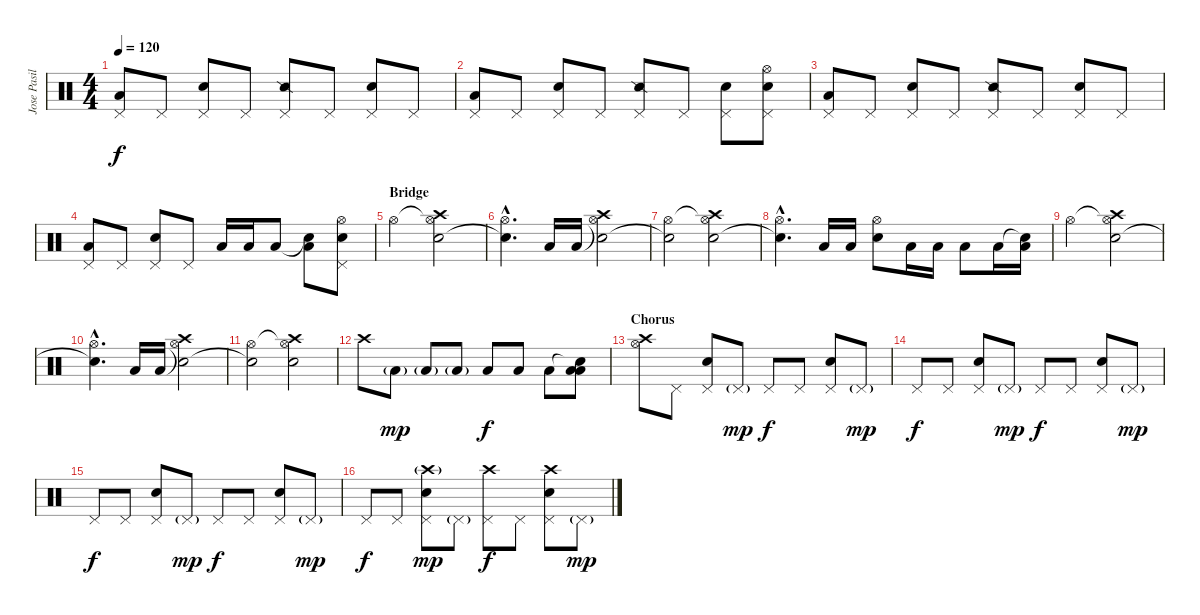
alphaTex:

\track ("Jose Pasillas II" "Jose Pasil") {instrument percussion}
\staff {score}
\articulation defaults
\ts (4 4)
\tempo 120
\clef neutral
\ks c
("Pedal Hi-Hat (hit)" "Low Floor Tom (hit)").8{dy f} "Pedal Hi-Hat (hit)".8 ("Pedal Hi-Hat (hit)" "Electric Snare (hit)").8 "Pedal Hi-Hat (hit)".8 ("Pedal Hi-Hat (hit)" "Snare (side stick) 2").8 "Pedal Hi-Hat (hit)".8 ("Pedal Hi-Hat (hit)" "Electric Snare (hit)").8 "Pedal Hi-Hat (hit)".8 |
("Pedal Hi-Hat (hit)" "Low Floor Tom (hit)").8 "Pedal Hi-Hat (hit)".8 ("Pedal Hi-Hat (hit)" "Electric Snare (hit)").8 "Pedal Hi-Hat (hit)".8 ("Pedal Hi-Hat (hit)" "Snare (side stick) 2").8 "Pedal Hi-Hat (hit)".8 ("Pedal Hi-Hat (hit)" "Electric Snare (hit)").8 ("Pedal Hi-Hat (hit)" "Hi-Hat (open)" "Electric Snare (hit)").8 |
("Pedal Hi-Hat (hit)" "Low Floor Tom (hit)").8 "Pedal Hi-Hat (hit)".8 ("Pedal Hi-Hat (hit)" "Electric Snare (hit)").8 "Pedal Hi-Hat (hit)".8 ("Pedal Hi-Hat (hit)" "Snare (side stick) 2").8 "Pedal Hi-Hat (hit)".8 ("Pedal Hi-Hat (hit)" "Electric Snare (hit)").8 "Pedal Hi-Hat (hit)".8 |
("Pedal Hi-Hat (hit)" "Low Floor Tom (hit)").8 "Pedal Hi-Hat (hit)".8 ("Pedal Hi-Hat (hit)" "Electric Snare (hit)").8 "Pedal Hi-Hat (hit)".8 "Low Tom (hit)".16 "Low Tom (hit)".16 "Low Floor Tom (hit)".8 ("Snare (hit)"{t} "Low Tom (hit)").8 ("Hi-Hat (open)" "Pedal Hi-Hat (hit)" "Electric Snare (hit)").8 |
\section ("" "Bridge")
"Hi-Hat (open)".2 ("Hi-Hat (open)"{t} "Electric Snare (hit)" "Crash high (hit)").2 |
("Hi-Hat (open)"{hac} "Snare (hit)"{hac t}).4{d} "Low Tom (hit)".16 "Low Tom (hit)".16 ("Hi-Hat (open)"{t} "Electric Snare (hit)" "Crash high (hit)").2 |
("Hi-Hat (open)" "Snare (hit)"{t}).2 ("Hi-Hat (open)"{t} "Electric Snare (hit)" "Crash high (hit)").2 |
("Hi-Hat (open)"{hac} "Snare (hit)"{hac t}).4{d} "Low Tom (hit)".16 "Low Tom (hit)".16 ("Hi-Hat (open)" "Electric Snare (hit)").8 "Low Tom (hit)".16 "Low Tom (hit)".16 "Low Tom (hit)".8 "Low Tom (hit)".16 ("Snare (hit)"{t} "Low Tom (hit)").16 |
"Hi-Hat (open)".2 ("Hi-Hat (open)"{t} "Electric Snare (hit)" "Crash high (hit)").2 |
("Hi-Hat (open)"{hac} "Snare (hit)"{hac t}).4{d} "Low Tom (hit)".16 "Low Tom (hit)".16 ("Hi-Hat (open)"{t} "Electric Snare (hit)" "Crash high (hit)").2 |
("Hi-Hat (open)" "Snare (hit)"{t}).2 ("Hi-Hat (open)"{t} "Electric Snare (hit)" "Crash high (hit)").2 |
"Crash high (hit)".8 "Low Tom (hit)"{g}.8{dy mp} "Low Tom (hit)"{g}.8 "Low Tom (hit)"{g}.8 "Low Tom (hit)".8{dy f} "Low Tom (hit)".8 "Low Tom (hit)".8 ("Snare (hit)"{t} "Low Tom (hit)" "Low Floor Tom (hit)").8 |
\section ("" "Chorus")
("Crash high (hit)" "Hi-Hat (open)").8 "Pedal Hi-Hat (hit)".8 ("Pedal Hi-Hat (hit)" "Electric Snare (hit)").8 "Pedal Hi-Hat (hit)"{g}.8{dy mp} "Pedal Hi-Hat (hit)".8{dy f} "Pedal Hi-Hat (hit)".8 ("Pedal Hi-Hat (hit)" "Electric Snare (hit)").8 "Pedal Hi-Hat (hit)"{g}.8{dy mp} |
"Pedal Hi-Hat (hit)".8{dy f} "Pedal Hi-Hat (hit)".8 ("Pedal Hi-Hat (hit)" "Electric Snare (hit)").8 "Pedal Hi-Hat (hit)"{g}.8{dy mp} "Pedal Hi-Hat (hit)".8{dy f} "Pedal Hi-Hat (hit)".8 ("Pedal Hi-Hat (hit)" "Electric Snare (hit)").8 "Pedal Hi-Hat (hit)"{g}.8{dy mp} |
"Pedal Hi-Hat (hit)".8{dy f} "Pedal Hi-Hat (hit)".8 ("Pedal Hi-Hat (hit)" "Electric Snare (hit)").8 "Pedal Hi-Hat (hit)"{g}.8{dy mp} "Pedal Hi-Hat (hit)".8{dy f} "Pedal Hi-Hat (hit)".8 ("Pedal Hi-Hat (hit)" "Electric Snare (hit)").8 "Pedal Hi-Hat (hit)"{g}.8{dy mp} |
"Pedal Hi-Hat (hit)".8{dy f} "Pedal Hi-Hat (hit)".8 ("Crash high (hit)"{g} "Pedal Hi-Hat (hit)" "Electric Snare (hit)").8{dy mp} "Pedal Hi-Hat (hit)"{g}.8 ("Crash high (hit)" "Pedal Hi-Hat (hit)").8{dy f} "Pedal Hi-Hat (hit)".8 ("Crash high (hit)" "Pedal Hi-Hat (hit)" "Electric Snare (hit)").8 "Pedal Hi-Hat (hit)"{g}.8{dy mp}
